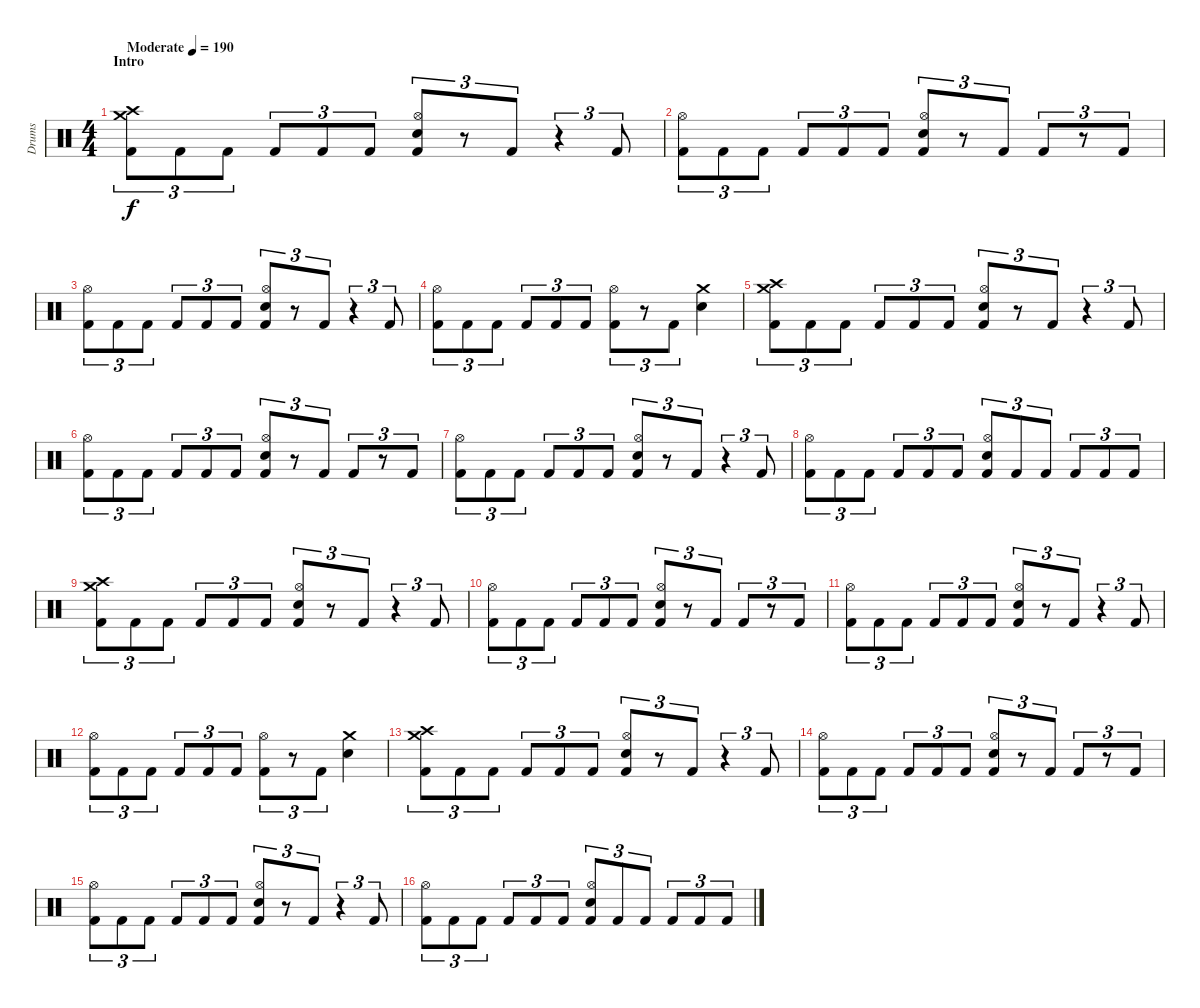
\track ("Drums" "Drums") {instrument percussion}
\staff {score}
\articulation defaults
\ts (4 4)
\section ("" "Intro")
\tempo (190 "Moderate")
\clef neutral
\ks c
("Crash high (hit)" "Crash medium (hit)" "Kick (hit) 2").8{tu (3 2) dy f} "Kick (hit) 2".8{tu (3 2)} "Kick (hit) 2".8{tu (3 2)} "Kick (hit) 2".8{tu (3 2)} "Kick (hit) 2".8{tu (3 2)} "Kick (hit) 2".8{tu (3 2)} ("Hi-Hat (open)" "Electric Snare (hit)" "Kick (hit) 2").8{tu (3 2)} r.8{tu (3 2)} "Kick (hit) 2".8{tu (3 2)} r.4{tu (3 2)} "Kick (hit) 2".8{tu (3 2)} |
("Hi-Hat (open)" "Kick (hit) 2").8{tu (3 2)} "Kick (hit) 2".8{tu (3 2)} "Kick (hit) 2".8{tu (3 2)} "Kick (hit) 2".8{tu (3 2)} "Kick (hit) 2".8{tu (3 2)} "Kick (hit) 2".8{tu (3 2)} ("Hi-Hat (open)" "Electric Snare (hit)" "Kick (hit) 2").8{tu (3 2)} r.8{tu (3 2)} "Kick (hit) 2".8{tu (3 2)} "Kick (hit) 2".8{tu (3 2)} r.8{tu (3 2)} "Kick (hit) 2".8{tu (3 2)} |
("Hi-Hat (open)" "Kick (hit) 2").8{tu (3 2)} "Kick (hit) 2".8{tu (3 2)} "Kick (hit) 2".8{tu (3 2)} "Kick (hit) 2".8{tu (3 2)} "Kick (hit) 2".8{tu (3 2)} "Kick (hit) 2".8{tu (3 2)} ("Hi-Hat (open)" "Electric Snare (hit)" "Kick (hit) 2").8{tu (3 2)} r.8{tu (3 2)} "Kick (hit) 2".8{tu (3 2)} r.4{tu (3 2)} "Kick (hit) 2".8{tu (3 2)} |
("Hi-Hat (open)" "Kick (hit) 2").8{tu (3 2)} "Kick (hit) 2".8{tu (3 2)} "Kick (hit) 2".8{tu (3 2)} "Kick (hit) 2".8{tu (3 2)} "Kick (hit) 2".8{tu (3 2)} "Kick (hit) 2".8{tu (3 2)} ("Hi-Hat (open)" "Kick (hit) 2").8{tu (3 2)} r.8{tu (3 2)} "Kick (hit) 2".8{tu (3 2)} ("Crash medium (hit)" "Electric Snare (hit)").4 |
("Crash high (hit)" "Crash medium (hit)" "Kick (hit) 2").8{tu (3 2)} "Kick (hit) 2".8{tu (3 2)} "Kick (hit) 2".8{tu (3 2)} "Kick (hit) 2".8{tu (3 2)} "Kick (hit) 2".8{tu (3 2)} "Kick (hit) 2".8{tu (3 2)} ("Hi-Hat (open)" "Electric Snare (hit)" "Kick (hit) 2").8{tu (3 2)} r.8{tu (3 2)} "Kick (hit) 2".8{tu (3 2)} r.4{tu (3 2)} "Kick (hit) 2".8{tu (3 2)} |
("Hi-Hat (open)" "Kick (hit) 2").8{tu (3 2)} "Kick (hit) 2".8{tu (3 2)} "Kick (hit) 2".8{tu (3 2)} "Kick (hit) 2".8{tu (3 2)} "Kick (hit) 2".8{tu (3 2)} "Kick (hit) 2".8{tu (3 2)} ("Hi-Hat (open)" "Electric Snare (hit)" "Kick (hit) 2").8{tu (3 2)} r.8{tu (3 2)} "Kick (hit) 2".8{tu (3 2)} "Kick (hit) 2".8{tu (3 2)} r.8{tu (3 2)} "Kick (hit) 2".8{tu (3 2)} |
("Hi-Hat (open)" "Kick (hit) 2").8{tu (3 2)} "Kick (hit) 2".8{tu (3 2)} "Kick (hit) 2".8{tu (3 2)} "Kick (hit) 2".8{tu (3 2)} "Kick (hit) 2".8{tu (3 2)} "Kick (hit) 2".8{tu (3 2)} ("Hi-Hat (open)" "Electric Snare (hit)" "Kick (hit) 2").8{tu (3 2)} r.8{tu (3 2)} "Kick (hit) 2".8{tu (3 2)} r.4{tu (3 2)} "Kick (hit) 2".8{tu (3 2)} |
("Hi-Hat (open)" "Kick (hit) 2").8{tu (3 2)} "Kick (hit) 2".8{tu (3 2)} "Kick (hit) 2".8{tu (3 2)} "Kick (hit) 2".8{tu (3 2)} "Kick (hit) 2".8{tu (3 2)} "Kick (hit) 2".8{tu (3 2)} ("Hi-Hat (open)" "Electric Snare (hit)" "Kick (hit) 2").8{tu (3 2)} "Kick (hit) 2".8{tu (3 2)} "Kick (hit) 2".8{tu (3 2)} "Kick (hit) 2".8{tu (3 2)} "Kick (hit) 2".8{tu (3 2)} "Kick (hit) 2".8{tu (3 2)} |
("Crash high (hit)" "Crash medium (hit)" "Kick (hit) 2").8{tu (3 2)} "Kick (hit) 2".8{tu (3 2)} "Kick (hit) 2".8{tu (3 2)} "Kick (hit) 2".8{tu (3 2)} "Kick (hit) 2".8{tu (3 2)} "Kick (hit) 2".8{tu (3 2)} ("Hi-Hat (open)" "Electric Snare (hit)" "Kick (hit) 2").8{tu (3 2)} r.8{tu (3 2)} "Kick (hit) 2".8{tu (3 2)} r.4{tu (3 2)} "Kick (hit) 2".8{tu (3 2)} |
("Hi-Hat (open)" "Kick (hit) 2").8{tu (3 2)} "Kick (hit) 2".8{tu (3 2)} "Kick (hit) 2".8{tu (3 2)} "Kick (hit) 2".8{tu (3 2)} "Kick (hit) 2".8{tu (3 2)} "Kick (hit) 2".8{tu (3 2)} ("Hi-Hat (open)" "Electric Snare (hit)" "Kick (hit) 2").8{tu (3 2)} r.8{tu (3 2)} "Kick (hit) 2".8{tu (3 2)} "Kick (hit) 2".8{tu (3 2)} r.8{tu (3 2)} "Kick (hit) 2".8{tu (3 2)} |
("Hi-Hat (open)" "Kick (hit) 2").8{tu (3 2)} "Kick (hit) 2".8{tu (3 2)} "Kick (hit) 2".8{tu (3 2)} "Kick (hit) 2".8{tu (3 2)} "Kick (hit) 2".8{tu (3 2)} "Kick (hit) 2".8{tu (3 2)} ("Hi-Hat (open)" "Electric Snare (hit)" "Kick (hit) 2").8{tu (3 2)} r.8{tu (3 2)} "Kick (hit) 2".8{tu (3 2)} r.4{tu (3 2)} "Kick (hit) 2".8{tu (3 2)} |
("Hi-Hat (open)" "Kick (hit) 2").8{tu (3 2)} "Kick (hit) 2".8{tu (3 2)} "Kick (hit) 2".8{tu (3 2)} "Kick (hit) 2".8{tu (3 2)} "Kick (hit) 2".8{tu (3 2)} "Kick (hit) 2".8{tu (3 2)} ("Hi-Hat (open)" "Kick (hit) 2").8{tu (3 2)} r.8{tu (3 2)} "Kick (hit) 2".8{tu (3 2)} ("Crash medium (hit)" "Electric Snare (hit)").4 |
("Crash high (hit)" "Crash medium (hit)" "Kick (hit) 2").8{tu (3 2)} "Kick (hit) 2".8{tu (3 2)} "Kick (hit) 2".8{tu (3 2)} "Kick (hit) 2".8{tu (3 2)} "Kick (hit) 2".8{tu (3 2)} "Kick (hit) 2".8{tu (3 2)} ("Hi-Hat (open)" "Electric Snare (hit)" "Kick (hit) 2").8{tu (3 2)} r.8{tu (3 2)} "Kick (hit) 2".8{tu (3 2)} r.4{tu (3 2)} "Kick (hit) 2".8{tu (3 2)} |
("Hi-Hat (open)" "Kick (hit) 2").8{tu (3 2)} "Kick (hit) 2".8{tu (3 2)} "Kick (hit) 2".8{tu (3 2)} "Kick (hit) 2".8{tu (3 2)} "Kick (hit) 2".8{tu (3 2)} "Kick (hit) 2".8{tu (3 2)} ("Hi-Hat (open)" "Electric Snare (hit)" "Kick (hit) 2").8{tu (3 2)} r.8{tu (3 2)} "Kick (hit) 2".8{tu (3 2)} "Kick (hit) 2".8{tu (3 2)} r.8{tu (3 2)} "Kick (hit) 2".8{tu (3 2)} |
("Hi-Hat (open)" "Kick (hit) 2").8{tu (3 2)} "Kick (hit) 2".8{tu (3 2)} "Kick (hit) 2".8{tu (3 2)} "Kick (hit) 2".8{tu (3 2)} "Kick (hit) 2".8{tu (3 2)} "Kick (hit) 2".8{tu (3 2)} ("Hi-Hat (open)" "Electric Snare (hit)" "Kick (hit) 2").8{tu (3 2)} r.8{tu (3 2)} "Kick (hit) 2".8{tu (3 2)} r.4{tu (3 2)} "Kick (hit) 2".8{tu (3 2)} |
("Hi-Hat (open)" "Kick (hit) 2").8{tu (3 2)} "Kick (hit) 2".8{tu (3 2)} "Kick (hit) 2".8{tu (3 2)} "Kick (hit) 2".8{tu (3 2)} "Kick (hit) 2".8{tu (3 2)} "Kick (hit) 2".8{tu (3 2)} ("Hi-Hat (open)" "Electric Snare (hit)" "Kick (hit) 2").8{tu (3 2)} "Kick (hit) 2".8{tu (3 2)} "Kick (hit) 2".8{tu (3 2)} "Kick (hit) 2".8{tu (3 2)} "Kick (hit) 2".8{tu (3 2)} "Kick (hit) 2".8{tu (3 2)}
